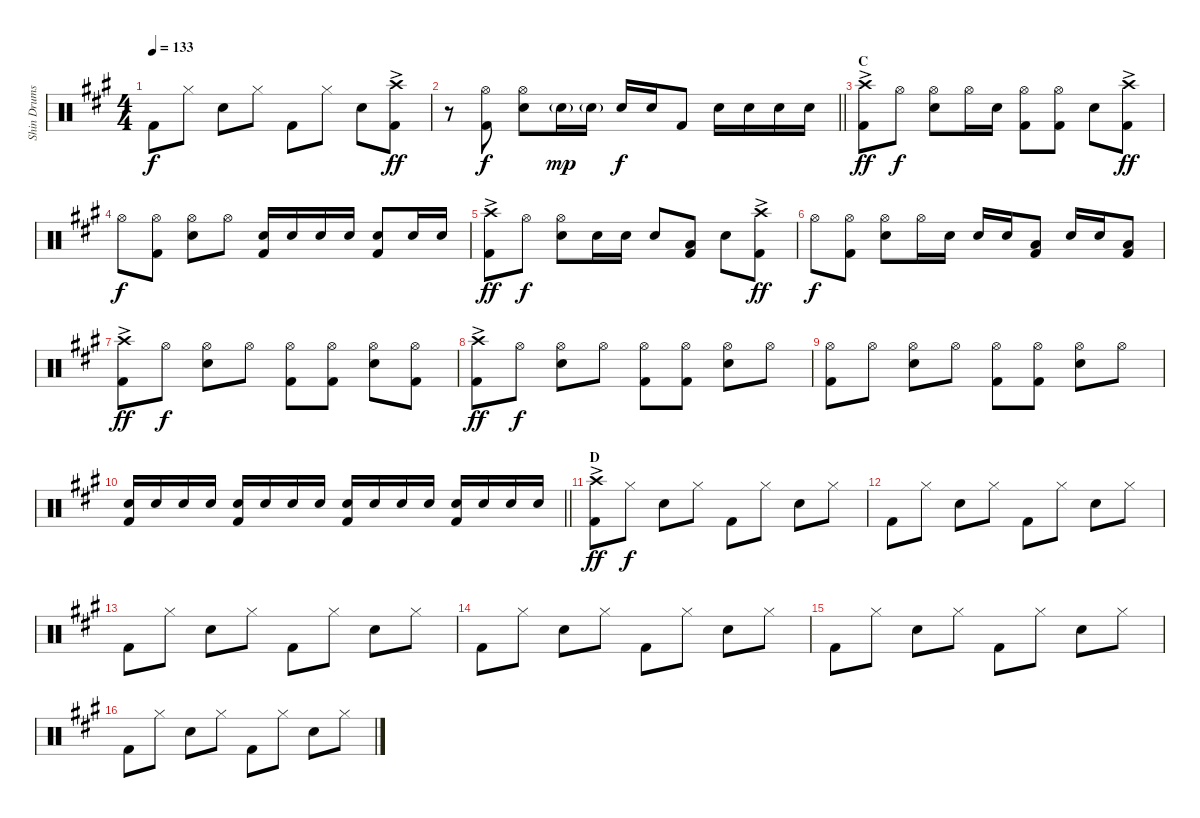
\track ("Shin Drums" "Shin Drums") {instrument percussion}
\staff {score}
\articulation defaults
\ts (4 4)
\tempo 133
\clef neutral
\ks a "Kick (hit) 2".8{dy f} "Hi-Hat (closed)".8 "Snare (hit) 2".8 "Hi-Hat (closed)".8 "Kick (hit) 2".8 "Hi-Hat (closed)".8 "Snare (hit) 2".8
("Crash high (hit)"{ac} "Kick (hit) 2").8{dy ff} |
\barLineRight lightlight
r.8 ("Hi-Hat (open)" "Kick (hit) 2").8{dy f} ("Hi-Hat (open)" "Snare (hit) 2").8 "Snare (hit) 2"{g}.16{dy mp} "Snare (hit) 2"{g}.16 "Snare (hit) 2".16{dy f} "Snare (hit) 2".16 "Kick (hit) 2".8 "Snare (hit) 2".16 "Snare (hit) 2".16 "Snare (hit) 2".16 "Snare (hit) 2".16 |
\section ("" "C")
("Crash high (hit)"{ac} "Kick (hit) 2").8{dy ff} "Hi-Hat (open)".8{dy f} ("Hi-Hat (open)" "Snare (hit) 2").8 "Hi-Hat (open)".16 "Snare (hit) 2".16 ("Hi-Hat (open)" "Kick (hit) 2").8 ("Hi-Hat (open)" "Kick (hit) 2").8 "Snare (hit) 2".8 ("Crash high (hit)"{ac} "Kick (hit) 2").8{dy ff} |
"Hi-Hat (open)".8{dy f} ("Hi-Hat (open)" "Kick (hit) 2").8 ("Hi-Hat (open)" "Snare (hit) 2").8 "Hi-Hat (open)".8 ("Snare (hit) 2" "Kick (hit) 2").16 "Snare (hit) 2".16 "Snare (hit) 2".16 "Snare (hit) 2".16 ("Snare (hit) 2" "Kick (hit) 2").8 "Snare (hit) 2".16 "Snare (hit) 2".16 |
("Crash high (hit)"{ac} "Kick (hit) 2").8{dy ff} "Hi-Hat (open)".8{dy f} ("Hi-Hat (open)" "Snare (hit) 2").8 "Snare (hit) 2".16 "Snare (hit) 2".16 "Snare (hit) 2".8 ("Low Tom (hit)" "Kick (hit) 2").8 "Snare (hit) 2".8 ("Crash high (hit)"{ac} "Kick (hit) 2").8{dy ff} |
"Hi-Hat (open)".8{dy f} ("Hi-Hat (open)" "Kick (hit) 2").8 ("Hi-Hat (open)" "Snare (hit) 2").8 "Hi-Hat (open)".16 "Snare (hit) 2".16 "Snare (hit) 2".16 "Snare (hit) 2".16 ("Low Tom (hit)" "Kick (hit) 2").8 "Snare (hit) 2".16 "Snare (hit) 2".16 ("Low Tom (hit)" "Kick (hit) 2").8 |
("Crash high (hit)"{ac} "Kick (hit) 2").8{dy ff} "Hi-Hat (open)".8{dy f} ("Hi-Hat (open)" "Snare (hit) 2").8 "Hi-Hat (open)".8 ("Hi-Hat (open)" "Kick (hit) 2").8 ("Hi-Hat (open)" "Kick (hit) 2").8 ("Hi-Hat (open)" "Snare (hit) 2").8 ("Hi-Hat (open)" "Kick (hit) 2").8 |
("Crash high (hit)"{ac} "Kick (hit) 2").8{dy ff} "Hi-Hat (open)".8{dy f} ("Hi-Hat (open)" "Snare (hit) 2").8 "Hi-Hat (open)".8 ("Hi-Hat (open)" "Kick (hit) 2").8 ("Hi-Hat (open)" "Kick (hit) 2").8 ("Hi-Hat (open)" "Snare (hit) 2").8 "Hi-Hat (open)".8 |
("Hi-Hat (open)" "Kick (hit) 2").8 "Hi-Hat (open)".8 ("Hi-Hat (open)" "Snare (hit) 2").8 "Hi-Hat (open)".8 ("Hi-Hat (open)" "Kick (hit) 2").8 ("Hi-Hat (open)" "Kick (hit) 2").8 ("Hi-Hat (open)" "Snare (hit) 2").8 "Hi-Hat (open)".8 |
\barLineRight lightlight
("Snare (hit) 2" "Kick (hit) 2").16 "Snare (hit) 2".16 "Snare (hit) 2".16 "Snare (hit) 2".16 ("Snare (hit) 2" "Kick (hit) 2").16 "Snare (hit) 2".16 "Snare (hit) 2".16 "Snare (hit) 2".16 ("Snare (hit) 2" "Kick (hit) 2").16 "Snare (hit) 2".16 "Snare (hit) 2".16 "Snare (hit) 2".16 ("Snare (hit) 2" "Kick (hit) 2").16 "Snare (hit) 2".16 "Snare (hit) 2".16 "Snare (hit) 2".16 |
\section ("" "D")
("Crash high (hit)"{ac} "Kick (hit) 2").8{dy ff} "Hi-Hat (closed)".8{dy f} "Snare (hit) 2".8 "Hi-Hat (closed)".8 "Kick (hit) 2".8 "Hi-Hat (closed)".8 "Snare (hit) 2".8 "Hi-Hat (closed)".8 |
"Kick (hit) 2".8 "Hi-Hat (closed)".8 "Snare (hit) 2".8 "Hi-Hat (closed)".8 "Kick (hit) 2".8 "Hi-Hat (closed)".8 "Snare (hit) 2".8 "Hi-Hat (closed)".8 |
"Kick (hit) 2".8 "Hi-Hat (closed)".8 "Snare (hit) 2".8 "Hi-Hat (closed)".8 "Kick (hit) 2".8 "Hi-Hat (closed)".8 "Snare (hit) 2".8 "Hi-Hat (closed)".8 |
"Kick (hit) 2".8 "Hi-Hat (closed)".8 "Snare (hit) 2".8 "Hi-Hat (closed)".8 "Kick (hit) 2".8 "Hi-Hat (closed)".8 "Snare (hit) 2".8 "Hi-Hat (closed)".8 |
"Kick (hit) 2".8 "Hi-Hat (closed)".8 "Snare (hit) 2".8 "Hi-Hat (closed)".8 "Kick (hit) 2".8 "Hi-Hat (closed)".8 "Snare (hit) 2".8 "Hi-Hat (closed)".8 |
"Kick (hit) 2".8 "Hi-Hat (closed)".8 "Snare (hit) 2".8 "Hi-Hat (closed)".8 "Kick (hit) 2".8 "Hi-Hat (closed)".8 "Snare (hit) 2".8 "Hi-Hat (closed)".8
